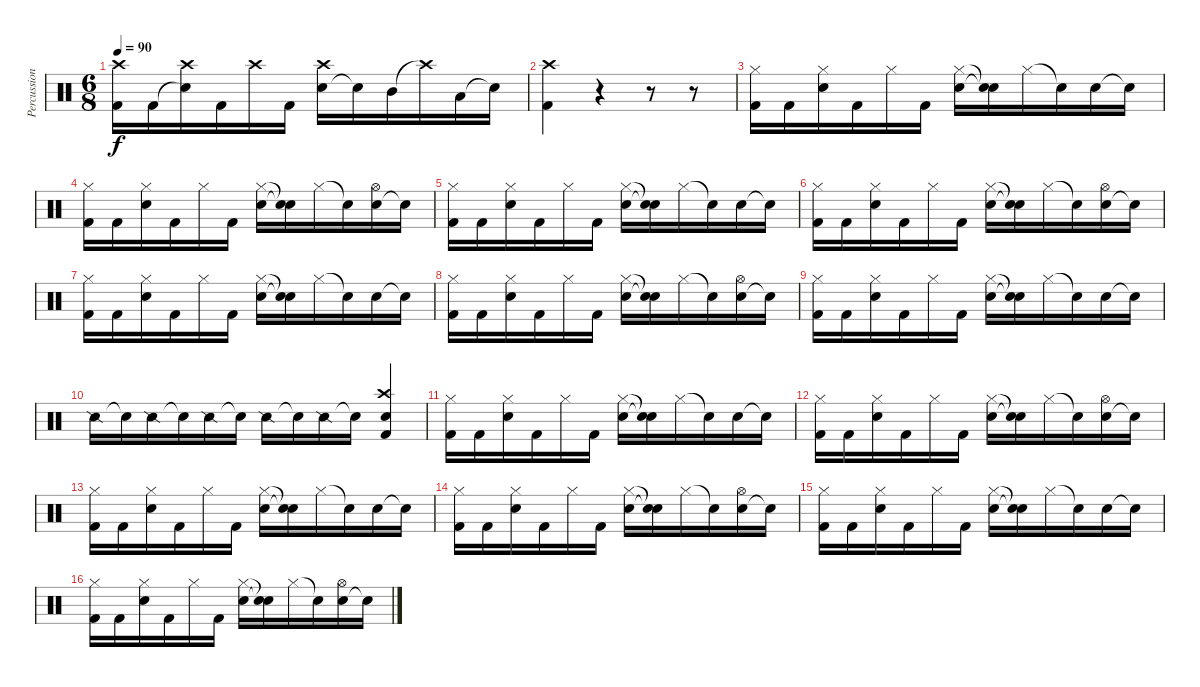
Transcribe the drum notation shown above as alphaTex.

\track ("Percussions" "Percussion") {instrument percussion}
\staff {score}
\articulation defaults
\ts (6 8)
\tempo 90
\clef neutral
\ks c
("Kick (hit) 2" "Crash high (hit)").16{dy f} "Kick (hit) 2".16 ("Snare (hit)"{t} "Crash high (hit)").16 "Kick (hit) 2".16 "Crash high (hit)".16 "Kick (hit) 2".16 ("Snare (hit) 2" "Crash high (hit)").16 "Snare (hit)"{t}.16 "Mid Tom (hit)".16 "Crash high (hit)"{t}.16 "Low Tom (hit)".16 "Snare (hit)"{t}.16 |
("Kick (hit) 2" "Crash high (hit)").4 r.4 r.8 r.8 |
("Kick (hit) 2" "Hi-Hat (closed)").16 "Kick (hit) 2".16 ("Snare (hit) 2" "Hi-Hat (closed)").16 "Kick (hit) 2".16 "Hi-Hat (closed)".16 "Kick (hit) 2".16 ("Snare (hit) 2" "Hi-Hat (closed)").16 ("Snare (hit)"{t} "Snare (hit)"{t}).16 "Hi-Hat (closed)".16 "Snare (hit)"{t}.16 "Snare (hit) 2".16 "Snare (hit)"{t}.16 |
("Kick (hit) 2" "Hi-Hat (closed)").16 "Kick (hit) 2".16 ("Snare (hit) 2" "Hi-Hat (closed)").16 "Kick (hit) 2".16 "Hi-Hat (closed)".16 "Kick (hit) 2".16 ("Snare (hit) 2" "Hi-Hat (closed)").16 ("Snare (hit)"{t} "Snare (hit)"{t}).16 "Hi-Hat (closed)".16 "Snare (hit)"{t}.16 ("Snare (hit) 2" "Hi-Hat (open)").16 "Snare (hit)"{t}.16 |
("Kick (hit) 2" "Hi-Hat (closed)").16 "Kick (hit) 2".16 ("Snare (hit) 2" "Hi-Hat (closed)").16 "Kick (hit) 2".16 "Hi-Hat (closed)".16 "Kick (hit) 2".16 ("Snare (hit) 2" "Hi-Hat (closed)").16 ("Snare (hit)"{t} "Snare (hit)"{t}).16 "Hi-Hat (closed)".16 "Snare (hit)"{t}.16 "Snare (hit) 2".16 "Snare (hit)"{t}.16 |
("Kick (hit) 2" "Hi-Hat (closed)").16 "Kick (hit) 2".16 ("Snare (hit) 2" "Hi-Hat (closed)").16 "Kick (hit) 2".16 "Hi-Hat (closed)".16 "Kick (hit) 2".16 ("Snare (hit) 2" "Hi-Hat (closed)").16 ("Snare (hit)"{t} "Snare (hit)"{t}).16 "Hi-Hat (closed)".16 "Snare (hit)"{t}.16 ("Snare (hit) 2" "Hi-Hat (open)").16 "Snare (hit)"{t}.16 |
("Kick (hit) 2" "Hi-Hat (closed)").16 "Kick (hit) 2".16 ("Snare (hit) 2" "Hi-Hat (closed)").16 "Kick (hit) 2".16 "Hi-Hat (closed)".16 "Kick (hit) 2".16 ("Snare (hit) 2" "Hi-Hat (closed)").16 ("Snare (hit)"{t} "Snare (hit)"{t}).16 "Hi-Hat (closed)".16 "Snare (hit)"{t}.16 "Snare (hit) 2".16 "Snare (hit)"{t}.16 |
("Kick (hit) 2" "Hi-Hat (closed)").16 "Kick (hit) 2".16 ("Snare (hit) 2" "Hi-Hat (closed)").16 "Kick (hit) 2".16 "Hi-Hat (closed)".16 "Kick (hit) 2".16 ("Snare (hit) 2" "Hi-Hat (closed)").16 ("Snare (hit)"{t} "Snare (hit)"{t}).16 "Hi-Hat (closed)".16 "Snare (hit)"{t}.16 ("Snare (hit) 2" "Hi-Hat (open)").16 "Snare (hit)"{t}.16 |
("Kick (hit) 2" "Hi-Hat (closed)").16 "Kick (hit) 2".16 ("Snare (hit) 2" "Hi-Hat (closed)").16 "Kick (hit) 2".16 "Hi-Hat (closed)".16 "Kick (hit) 2".16 ("Snare (hit) 2" "Hi-Hat (closed)").16 ("Snare (hit)"{t} "Snare (hit)"{t}).16 "Hi-Hat (closed)".16 "Snare (hit)"{t}.16 "Snare (hit) 2".16 "Snare (hit)"{t}.16 |
"Snare (side stick) 2".16 "Snare (hit)"{t}.16 "Snare (side stick) 2".16 "Snare (hit)"{t}.16 "Snare (side stick) 2".16 "Snare (hit)"{t}.16 "Snare (side stick) 2".16 "Snare (hit)"{t}.16 "Snare (side stick) 2".16 "Snare (hit)"{t}.16 ("Kick (hit) 2" "Snare (hit) 2" "Crash high (hit)").4 |
("Kick (hit) 2" "Hi-Hat (closed)").16 "Kick (hit) 2".16 ("Snare (hit) 2" "Hi-Hat (closed)").16 "Kick (hit) 2".16 "Hi-Hat (closed)".16 "Kick (hit) 2".16 ("Snare (hit) 2" "Hi-Hat (closed)").16 ("Snare (hit)"{t} "Snare (hit)"{t}).16 "Hi-Hat (closed)".16 "Snare (hit)"{t}.16 "Snare (hit) 2".16 "Snare (hit)"{t}.16 |
("Kick (hit) 2" "Hi-Hat (closed)").16 "Kick (hit) 2".16 ("Snare (hit) 2" "Hi-Hat (closed)").16 "Kick (hit) 2".16 "Hi-Hat (closed)".16 "Kick (hit) 2".16 ("Snare (hit) 2" "Hi-Hat (closed)").16 ("Snare (hit)"{t} "Snare (hit)"{t}).16 "Hi-Hat (closed)".16 "Snare (hit)"{t}.16 ("Snare (hit) 2" "Hi-Hat (open)").16 "Snare (hit)"{t}.16 |
("Kick (hit) 2" "Hi-Hat (closed)").16 "Kick (hit) 2".16 ("Snare (hit) 2" "Hi-Hat (closed)").16 "Kick (hit) 2".16 "Hi-Hat (closed)".16 "Kick (hit) 2".16 ("Snare (hit) 2" "Hi-Hat (closed)").16 ("Snare (hit)"{t} "Snare (hit)"{t}).16 "Hi-Hat (closed)".16 "Snare (hit)"{t}.16 "Snare (hit) 2".16 "Snare (hit)"{t}.16 |
("Kick (hit) 2" "Hi-Hat (closed)").16 "Kick (hit) 2".16 ("Snare (hit) 2" "Hi-Hat (closed)").16 "Kick (hit) 2".16 "Hi-Hat (closed)".16 "Kick (hit) 2".16 ("Snare (hit) 2" "Hi-Hat (closed)").16 ("Snare (hit)"{t} "Snare (hit)"{t}).16 "Hi-Hat (closed)".16 "Snare (hit)"{t}.16 ("Snare (hit) 2" "Hi-Hat (open)").16 "Snare (hit)"{t}.16 |
("Kick (hit) 2" "Hi-Hat (closed)").16 "Kick (hit) 2".16 ("Snare (hit) 2" "Hi-Hat (closed)").16 "Kick (hit) 2".16 "Hi-Hat (closed)".16 "Kick (hit) 2".16 ("Snare (hit) 2" "Hi-Hat (closed)").16 ("Snare (hit)"{t} "Snare (hit)"{t}).16 "Hi-Hat (closed)".16 "Snare (hit)"{t}.16 "Snare (hit) 2".16 "Snare (hit)"{t}.16 |
("Kick (hit) 2" "Hi-Hat (closed)").16 "Kick (hit) 2".16 ("Snare (hit) 2" "Hi-Hat (closed)").16 "Kick (hit) 2".16 "Hi-Hat (closed)".16 "Kick (hit) 2".16 ("Snare (hit) 2" "Hi-Hat (closed)").16 ("Snare (hit)"{t} "Snare (hit)"{t}).16 "Hi-Hat (closed)".16 "Snare (hit)"{t}.16 ("Snare (hit) 2" "Hi-Hat (open)").16 "Snare (hit)"{t}.16
